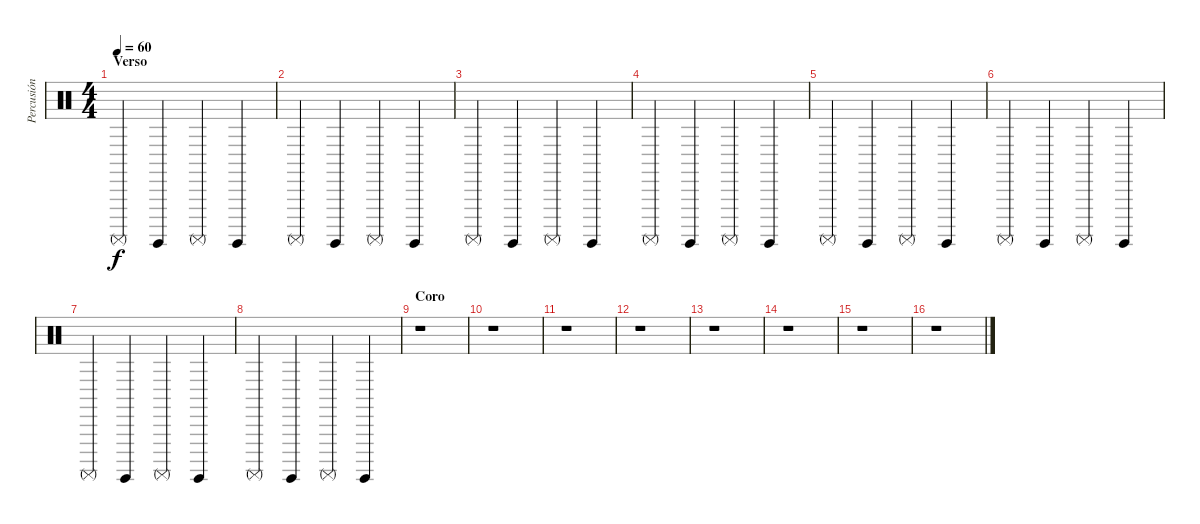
\track ("Percusión" "Percusión") {instrument percussion}
\staff {score}
\articulation defaults
\ts (4 4)
\section ("" "Verso")
\tempo 60
\clef neutral
\ks c "Surdo (mute)".4{dy f} "Surdo (hit)".4 "Surdo (mute)".4 "Surdo (hit)".4
|
"Surdo (mute)".4 "Surdo (hit)".4 "Surdo (mute)".4 "Surdo (hit)".4 |
"Surdo (mute)".4 "Surdo (hit)".4 "Surdo (mute)".4 "Surdo (hit)".4 |
"Surdo (mute)".4 "Surdo (hit)".4 "Surdo (mute)".4 "Surdo (hit)".4 |
"Surdo (mute)".4 "Surdo (hit)".4 "Surdo (mute)".4 "Surdo (hit)".4 |
"Surdo (mute)".4 "Surdo (hit)".4 "Surdo (mute)".4 "Surdo (hit)".4 |
"Surdo (mute)".4 "Surdo (hit)".4 "Surdo (mute)".4 "Surdo (hit)".4 |
"Surdo (mute)".4 "Surdo (hit)".4 "Surdo (mute)".4 "Surdo (hit)".4 |
\section ("" "Coro")
r.1 |
r.1 |
r.1 |
r.1 |
r.1 |
r.1 |
r.1 |
r.1
